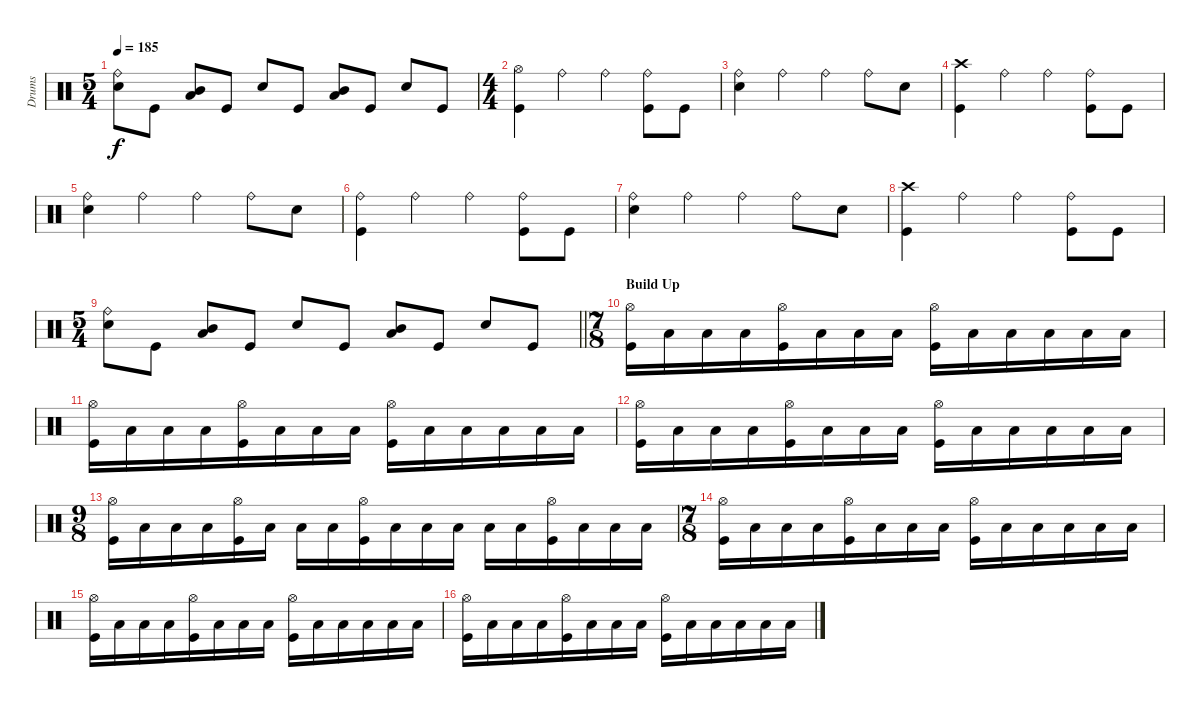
\track ("Drums" "Drums") {instrument percussion}
\staff {score}
\articulation defaults
\ts (5 4)
\tempo 185
\clef neutral
\ks c
("Ride (bell)" "Snare (hit) 2").8{dy f} "Kick (hit)".8 ("Mid Tom (hit)" "Low Tom (hit)").8 "Kick (hit)".8 "Snare (hit) 2".8 "Kick (hit)".8 ("Mid Tom (hit)" "Low Tom (hit)").8 "Kick (hit)".8 "Snare (hit) 2".8 "Kick (hit)".8 |
\ts (4 4)
("Hi-Hat (open)" "Kick (hit)").4 "Ride (bell)".4 "Ride (bell)".4 ("Ride (bell)" "Kick (hit)").8 "Kick (hit)".8 |
("Ride (bell)" "Snare (hit) 2").4 "Ride (bell)".4 "Ride (bell)".4 "Ride (bell)".8 "Snare (hit) 2".8 |
("Crash high (hit)" "Kick (hit)").4 "Ride (bell)".4 "Ride (bell)".4 ("Ride (bell)" "Kick (hit)").8 "Kick (hit)".8 |
("Ride (bell)" "Snare (hit) 2").4 "Ride (bell)".4 "Ride (bell)".4 "Ride (bell)".8 "Snare (hit) 2".8 |
("Ride (bell)" "Kick (hit)").4 "Ride (bell)".4 "Ride (bell)".4 ("Ride (bell)" "Kick (hit)").8 "Kick (hit)".8 |
("Ride (bell)" "Snare (hit) 2").4 "Ride (bell)".4 "Ride (bell)".4 "Ride (bell)".8 "Snare (hit) 2".8 |
("Crash high (hit)" "Kick (hit)").4 "Ride (bell)".4 "Ride (bell)".4 ("Ride (bell)" "Kick (hit)").8 "Kick (hit)".8 |
\ts (5 4)
\barLineRight lightlight
("Ride (bell)" "Snare (hit) 2").8 "Kick (hit)".8 ("Mid Tom (hit)" "Low Tom (hit)").8 "Kick (hit)".8 "Snare (hit) 2".8 "Kick (hit)".8 ("Mid Tom (hit)" "Low Tom (hit)").8 "Kick (hit)".8 "Snare (hit) 2".8 "Kick (hit)".8 |
\ts (7 8)
\section ("" "Build Up")
("Hi-Hat (open)" "Kick (hit)").16 "Low Tom (hit)".16 "Low Tom (hit)".16 "Low Tom (hit)".16 ("Hi-Hat (open)" "Kick (hit)").16 "Low Tom (hit)".16 "Low Tom (hit)".16 "Low Tom (hit)".16 ("Hi-Hat (open)" "Kick (hit)").16 "Low Tom (hit)".16 "Low Tom (hit)".16 "Low Tom (hit)".16 "Low Tom (hit)".16 "Low Tom (hit)".16 |
("Hi-Hat (open)" "Kick (hit)").16 "Low Tom (hit)".16 "Low Tom (hit)".16 "Low Tom (hit)".16 ("Hi-Hat (open)" "Kick (hit)").16 "Low Tom (hit)".16 "Low Tom (hit)".16 "Low Tom (hit)".16 ("Hi-Hat (open)" "Kick (hit)").16 "Low Tom (hit)".16 "Low Tom (hit)".16 "Low Tom (hit)".16 "Low Tom (hit)".16 "Low Tom (hit)".16 |
("Hi-Hat (open)" "Kick (hit)").16 "Low Tom (hit)".16 "Low Tom (hit)".16 "Low Tom (hit)".16 ("Hi-Hat (open)" "Kick (hit)").16 "Low Tom (hit)".16 "Low Tom (hit)".16 "Low Tom (hit)".16 ("Hi-Hat (open)" "Kick (hit)").16 "Low Tom (hit)".16 "Low Tom (hit)".16 "Low Tom (hit)".16 "Low Tom (hit)".16 "Low Tom (hit)".16 |
\ts (9 8)
("Hi-Hat (open)" "Kick (hit)").16 "Low Tom (hit)".16 "Low Tom (hit)".16 "Low Tom (hit)".16 ("Hi-Hat (open)" "Kick (hit)").16 "Low Tom (hit)".16 "Low Tom (hit)".16 "Low Tom (hit)".16 ("Hi-Hat (open)" "Kick (hit)").16 "Low Tom (hit)".16 "Low Tom (hit)".16 "Low Tom (hit)".16 "Low Tom (hit)".16 "Low Tom (hit)".16 ("Hi-Hat (open)" "Kick (hit)").16 "Low Tom (hit)".16 "Low Tom (hit)".16 "Low Tom (hit)".16 |
\ts (7 8)
("Hi-Hat (open)" "Kick (hit)").16 "Low Tom (hit)".16 "Low Tom (hit)".16 "Low Tom (hit)".16 ("Hi-Hat (open)" "Kick (hit)").16 "Low Tom (hit)".16 "Low Tom (hit)".16 "Low Tom (hit)".16 ("Hi-Hat (open)" "Kick (hit)").16 "Low Tom (hit)".16 "Low Tom (hit)".16 "Low Tom (hit)".16 "Low Tom (hit)".16 "Low Tom (hit)".16 |
("Hi-Hat (open)" "Kick (hit)").16 "Low Tom (hit)".16 "Low Tom (hit)".16 "Low Tom (hit)".16 ("Hi-Hat (open)" "Kick (hit)").16 "Low Tom (hit)".16 "Low Tom (hit)".16 "Low Tom (hit)".16 ("Hi-Hat (open)" "Kick (hit)").16 "Low Tom (hit)".16 "Low Tom (hit)".16 "Low Tom (hit)".16 "Low Tom (hit)".16 "Low Tom (hit)".16 |
("Hi-Hat (open)" "Kick (hit)").16 "Low Tom (hit)".16 "Low Tom (hit)".16 "Low Tom (hit)".16 ("Hi-Hat (open)" "Kick (hit)").16 "Low Tom (hit)".16 "Low Tom (hit)".16 "Low Tom (hit)".16 ("Hi-Hat (open)" "Kick (hit)").16 "Low Tom (hit)".16 "Low Tom (hit)".16 "Low Tom (hit)".16 "Low Tom (hit)".16 "Low Tom (hit)".16
